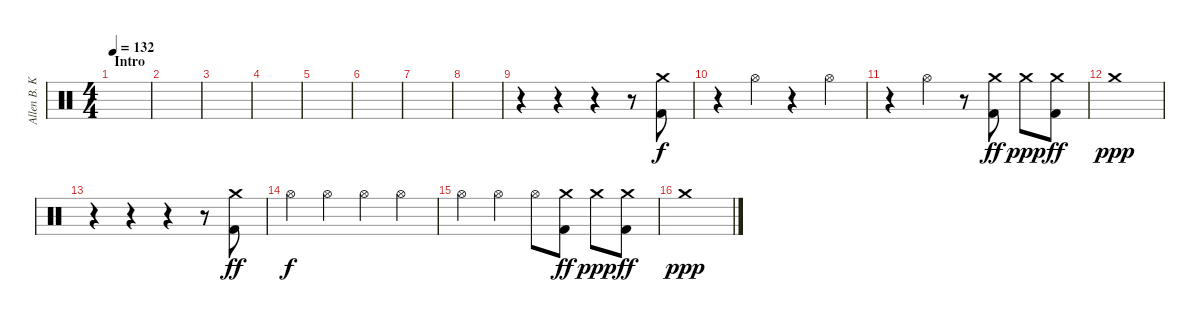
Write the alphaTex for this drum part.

\track ("Allen B. Konstanz (Drums)" "Allen B. K") {instrument percussion}
\staff {score}
\articulation defaults
\ts (4 4)
\section ("" "Intro")
\tempo 132
\clef neutral
\ks c
|
|
|
|
|
|
|
|
r.4 r.4 r.4 r.8 ("Kick (hit) 2" "Crash medium (hit)").8 |
r.4 "Hi-Hat (open)".4{dy f} r.4 "Hi-Hat (open)".4 |
r.4 "Hi-Hat (open)".4 r.8 ("Kick (hit) 2" "Crash medium (hit)").8{dy ff} "Crash medium (hit)".8{dy ppp} ("Kick (hit) 2" "Crash medium (hit)").8{dy ff} |
"Crash medium (hit)".1{dy ppp} |
r.4 r.4 r.4 r.8 ("Kick (hit) 2" "Crash medium (hit)").8{dy ff} |
"Hi-Hat (open)".4{dy f} "Hi-Hat (open)".4 "Hi-Hat (open)".4 "Hi-Hat (open)".4 |
"Hi-Hat (open)".4 "Hi-Hat (open)".4 "Hi-Hat (open)".8 ("Kick (hit) 2" "Crash medium (hit)").8{dy ff} "Crash medium (hit)".8{dy ppp} ("Kick (hit) 2" "Crash medium (hit)").8{dy ff} |
"Crash medium (hit)".1{dy ppp}
